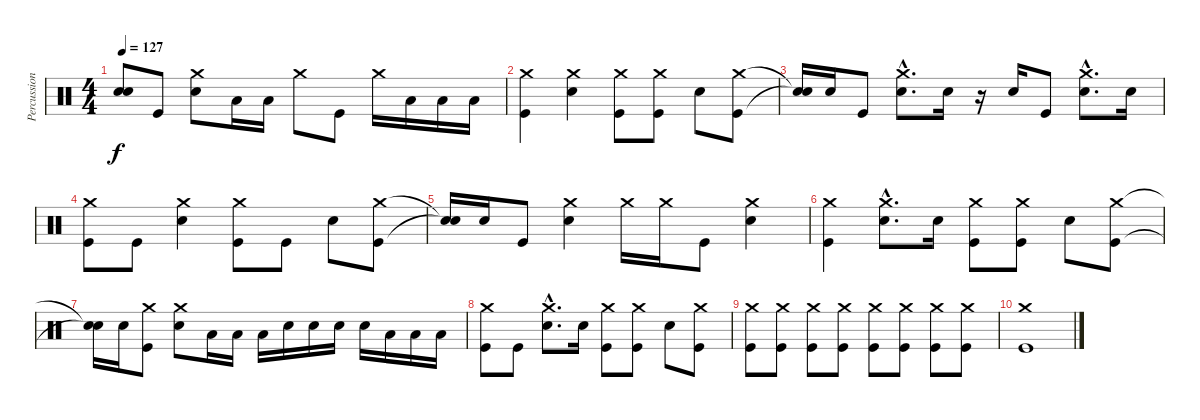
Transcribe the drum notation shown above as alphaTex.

\track ("Percussion" "Percussion") {instrument percussion}
\staff {score}
\articulation defaults
\ts (4 4)
\tempo 127
\clef neutral
\ks c
("Snare (hit)"{t} "Snare (hit)"{t}).8{dy f} "Kick (hit)".8 ("Crash medium (hit)" "Snare (hit) 2").8 "Low Tom (hit)".16 "Low Tom (hit)".16 "Crash medium (hit)".8 "Kick (hit)".8 "Crash medium (hit)".16 "Low Tom (hit)".16 "Low Tom (hit)".16 "Low Tom (hit)".16 |
("Crash medium (hit)" "Kick (hit)").4 ("Crash medium (hit)" "Snare (hit) 2").4 ("Crash medium (hit)" "Kick (hit)").8 ("Crash medium (hit)" "Kick (hit)").8 "Snare (hit) 2".8 ("Crash medium (hit)" "Kick (hit)").8 |
("Snare (hit)"{t} "Snare (hit)"{t}).16 "Snare (hit) 2".16 "Kick (hit)".8 ("Crash medium (hit)"{hac} "Snare (hit) 2"{hac}).8{d} "Snare (hit) 2".16 r.16 "Snare (hit) 2".16 "Kick (hit)".8 ("Crash medium (hit)"{hac} "Snare (hit) 2"{hac}).8{d} "Snare (hit) 2".16 |
("Crash medium (hit)" "Kick (hit)").8 "Kick (hit)".8 ("Crash medium (hit)" "Snare (hit) 2").4 ("Crash medium (hit)" "Kick (hit)").8 "Kick (hit)".8 "Snare (hit) 2".8 ("Crash medium (hit)" "Kick (hit)").8 |
("Snare (hit)"{t} "Snare (hit)"{t}).16 "Snare (hit) 2".16 "Kick (hit)".8 ("Crash medium (hit)" "Snare (hit) 2").4 "Crash medium (hit)".16 "Crash medium (hit)".16 "Kick (hit)".8 ("Crash medium (hit)" "Snare (hit) 2").4 |
("Crash medium (hit)" "Kick (hit)").4 ("Crash medium (hit)"{hac} "Snare (hit) 2"{hac}).8{d} "Snare (hit) 2".16 ("Crash medium (hit)" "Kick (hit)").8 ("Crash medium (hit)" "Kick (hit)").8 "Snare (hit) 2".8 ("Crash medium (hit)" "Kick (hit)").8 |
("Snare (hit)"{t} "Snare (hit)"{t}).16 "Snare (hit) 2".16 ("Crash medium (hit)" "Kick (hit)").8 ("Crash medium (hit)" "Snare (hit) 2").8 "Low Tom (hit)".16 "Low Tom (hit)".16 "Low Tom (hit)".16 "Snare (hit) 2".16 "Snare (hit) 2".16 "Snare (hit) 2".16 "Snare (hit) 2".16 "Low Tom (hit)".16 "Low Tom (hit)".16 "Low Tom (hit)".16 |
("Crash medium (hit)" "Kick (hit)").8 "Kick (hit)".8 ("Crash medium (hit)"{hac} "Snare (hit) 2"{hac}).8{d} "Snare (hit) 2".16 ("Crash medium (hit)" "Kick (hit)").8 ("Crash medium (hit)" "Kick (hit)").8 "Snare (hit) 2".8 ("Crash medium (hit)" "Kick (hit)").8 |
("Crash medium (hit)" "Kick (hit)").8 ("Crash medium (hit)" "Kick (hit)").8 ("Crash medium (hit)" "Kick (hit)").8 ("Crash medium (hit)" "Kick (hit)").8 ("Crash medium (hit)" "Kick (hit)").8 ("Crash medium (hit)" "Kick (hit)").8 ("Crash medium (hit)" "Kick (hit)").8 ("Crash medium (hit)" "Kick (hit)").8 |
("Crash medium (hit)" "Kick (hit)").1
